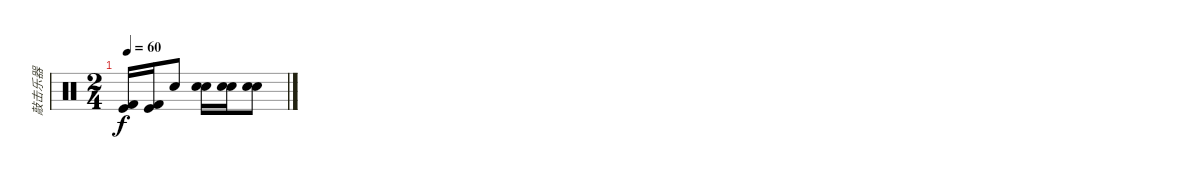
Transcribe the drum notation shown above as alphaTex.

\track ("敲击乐器" "敲击乐器") {instrument percussion}
\staff {score}
\articulation defaults
\ts (2 4)
\tempo 60
\clef neutral
\ks c
("Kick (hit) 2" "Kick (hit)").16{dy f} ("Kick (hit) 2" "Kick (hit)").16 "Hand Clap (hit)".8 ("Snare (hit) 2" "Snare (hit) 2").16 ("Snare (hit) 2" "Snare (hit) 2").16 ("Snare (hit) 2" "Hand Clap (hit)").8
